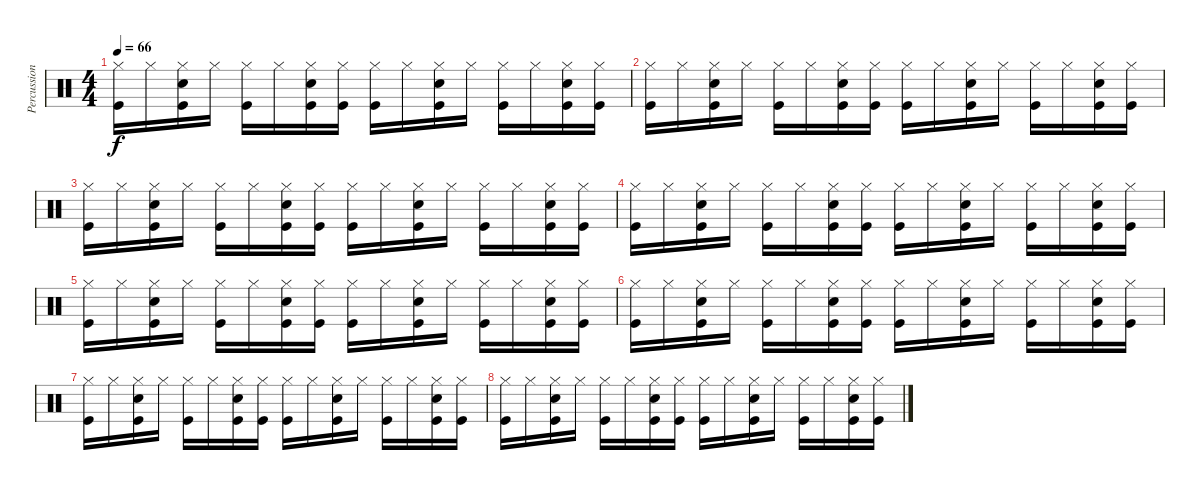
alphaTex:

\track ("Percussion" "Percussion") {instrument percussion}
\staff {score}
\articulation defaults
\ts (4 4)
\tempo 66
\clef neutral
\ks c
("Hi-Hat (closed)" "Kick (hit)").16{dy f} "Hi-Hat (closed)".16 ("Hi-Hat (closed)" "Kick (hit)" "Electric Snare (hit)").16 "Hi-Hat (closed)".16 ("Hi-Hat (closed)" "Kick (hit)").16 "Hi-Hat (closed)".16 ("Hi-Hat (closed)" "Kick (hit)" "Electric Snare (hit)").16 ("Hi-Hat (closed)" "Kick (hit)").16 ("Hi-Hat (closed)" "Kick (hit)").16 "Hi-Hat (closed)".16 ("Hi-Hat (closed)" "Kick (hit)" "Electric Snare (hit)").16 "Hi-Hat (closed)".16 ("Hi-Hat (closed)" "Kick (hit)").16 "Hi-Hat (closed)".16 ("Hi-Hat (closed)" "Kick (hit)" "Electric Snare (hit)").16 ("Hi-Hat (closed)" "Kick (hit)").16 |
("Hi-Hat (closed)" "Kick (hit)").16 "Hi-Hat (closed)".16 ("Hi-Hat (closed)" "Kick (hit)" "Electric Snare (hit)").16 "Hi-Hat (closed)".16 ("Hi-Hat (closed)" "Kick (hit)").16 "Hi-Hat (closed)".16 ("Hi-Hat (closed)" "Kick (hit)" "Electric Snare (hit)").16 ("Hi-Hat (closed)" "Kick (hit)").16 ("Hi-Hat (closed)" "Kick (hit)").16 "Hi-Hat (closed)".16 ("Hi-Hat (closed)" "Kick (hit)" "Electric Snare (hit)").16 "Hi-Hat (closed)".16 ("Hi-Hat (closed)" "Kick (hit)").16 "Hi-Hat (closed)".16 ("Hi-Hat (closed)" "Kick (hit)" "Electric Snare (hit)").16 ("Hi-Hat (closed)" "Kick (hit)").16 |
("Hi-Hat (closed)" "Kick (hit)").16 "Hi-Hat (closed)".16 ("Hi-Hat (closed)" "Kick (hit)" "Electric Snare (hit)").16 "Hi-Hat (closed)".16 ("Hi-Hat (closed)" "Kick (hit)").16 "Hi-Hat (closed)".16 ("Hi-Hat (closed)" "Kick (hit)" "Electric Snare (hit)").16 ("Hi-Hat (closed)" "Kick (hit)").16 ("Hi-Hat (closed)" "Kick (hit)").16 "Hi-Hat (closed)".16 ("Hi-Hat (closed)" "Kick (hit)" "Electric Snare (hit)").16 "Hi-Hat (closed)".16 ("Hi-Hat (closed)" "Kick (hit)").16 "Hi-Hat (closed)".16 ("Hi-Hat (closed)" "Kick (hit)" "Electric Snare (hit)").16 ("Hi-Hat (closed)" "Kick (hit)").16 |
("Hi-Hat (closed)" "Kick (hit)").16 "Hi-Hat (closed)".16 ("Hi-Hat (closed)" "Kick (hit)" "Electric Snare (hit)").16 "Hi-Hat (closed)".16 ("Hi-Hat (closed)" "Kick (hit)").16 "Hi-Hat (closed)".16 ("Hi-Hat (closed)" "Kick (hit)" "Electric Snare (hit)").16 ("Hi-Hat (closed)" "Kick (hit)").16 ("Hi-Hat (closed)" "Kick (hit)").16 "Hi-Hat (closed)".16 ("Hi-Hat (closed)" "Kick (hit)" "Electric Snare (hit)").16 "Hi-Hat (closed)".16 ("Hi-Hat (closed)" "Kick (hit)").16 "Hi-Hat (closed)".16 ("Hi-Hat (closed)" "Kick (hit)" "Electric Snare (hit)").16 ("Hi-Hat (closed)" "Kick (hit)").16 |
("Hi-Hat (closed)" "Kick (hit)").16 "Hi-Hat (closed)".16 ("Hi-Hat (closed)" "Kick (hit)" "Electric Snare (hit)").16 "Hi-Hat (closed)".16 ("Hi-Hat (closed)" "Kick (hit)").16 "Hi-Hat (closed)".16 ("Hi-Hat (closed)" "Kick (hit)" "Electric Snare (hit)").16 ("Hi-Hat (closed)" "Kick (hit)").16 ("Hi-Hat (closed)" "Kick (hit)").16 "Hi-Hat (closed)".16 ("Hi-Hat (closed)" "Kick (hit)" "Electric Snare (hit)").16 "Hi-Hat (closed)".16 ("Hi-Hat (closed)" "Kick (hit)").16 "Hi-Hat (closed)".16 ("Hi-Hat (closed)" "Kick (hit)" "Electric Snare (hit)").16 ("Hi-Hat (closed)" "Kick (hit)").16 |
("Hi-Hat (closed)" "Kick (hit)").16 "Hi-Hat (closed)".16 ("Hi-Hat (closed)" "Kick (hit)" "Electric Snare (hit)").16 "Hi-Hat (closed)".16 ("Hi-Hat (closed)" "Kick (hit)").16 "Hi-Hat (closed)".16 ("Hi-Hat (closed)" "Kick (hit)" "Electric Snare (hit)").16 ("Hi-Hat (closed)" "Kick (hit)").16 ("Hi-Hat (closed)" "Kick (hit)").16 "Hi-Hat (closed)".16 ("Hi-Hat (closed)" "Kick (hit)" "Electric Snare (hit)").16 "Hi-Hat (closed)".16 ("Hi-Hat (closed)" "Kick (hit)").16 "Hi-Hat (closed)".16 ("Hi-Hat (closed)" "Kick (hit)" "Electric Snare (hit)").16 ("Hi-Hat (closed)" "Kick (hit)").16 |
("Hi-Hat (closed)" "Kick (hit)").16 "Hi-Hat (closed)".16 ("Hi-Hat (closed)" "Kick (hit)" "Electric Snare (hit)").16 "Hi-Hat (closed)".16 ("Hi-Hat (closed)" "Kick (hit)").16 "Hi-Hat (closed)".16 ("Hi-Hat (closed)" "Kick (hit)" "Electric Snare (hit)").16 ("Hi-Hat (closed)" "Kick (hit)").16 ("Hi-Hat (closed)" "Kick (hit)").16 "Hi-Hat (closed)".16 ("Hi-Hat (closed)" "Kick (hit)" "Electric Snare (hit)").16 "Hi-Hat (closed)".16 ("Hi-Hat (closed)" "Kick (hit)").16 "Hi-Hat (closed)".16 ("Hi-Hat (closed)" "Kick (hit)" "Electric Snare (hit)").16 ("Hi-Hat (closed)" "Kick (hit)").16 |
("Hi-Hat (closed)" "Kick (hit)").16 "Hi-Hat (closed)".16 ("Hi-Hat (closed)" "Kick (hit)" "Electric Snare (hit)").16 "Hi-Hat (closed)".16 ("Hi-Hat (closed)" "Kick (hit)").16 "Hi-Hat (closed)".16 ("Hi-Hat (closed)" "Kick (hit)" "Electric Snare (hit)").16 ("Hi-Hat (closed)" "Kick (hit)").16 ("Hi-Hat (closed)" "Kick (hit)").16 "Hi-Hat (closed)".16 ("Hi-Hat (closed)" "Kick (hit)" "Electric Snare (hit)").16 "Hi-Hat (closed)".16 ("Hi-Hat (closed)" "Kick (hit)").16 "Hi-Hat (closed)".16 ("Hi-Hat (closed)" "Kick (hit)" "Electric Snare (hit)").16 ("Hi-Hat (closed)" "Kick (hit)").16
